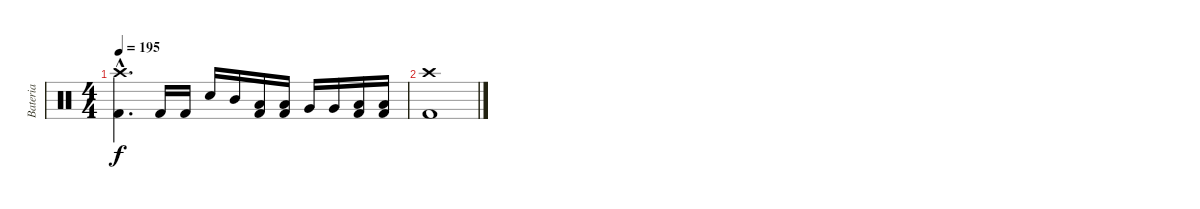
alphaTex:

\track ("Bateria" "Bateria") {instrument percussion}
\staff {score}
\articulation defaults
\ts (4 4)
\tempo 195
\clef neutral
\ks c
("Crash high (hit)"{hac} "Kick (hit) 2"{hac}).4{d dy f} "Kick (hit) 2".16 "Kick (hit) 2".16 "Snare (hit) 2".16 "Mid Tom (hit)".16 ("Low Tom (hit)" "Kick (hit) 2").16 ("Low Tom (hit)" "Kick (hit) 2").16 "Very Low Tom (hit)".16 "Very Low Tom (hit)".16 ("Low Floor Tom (hit)" "Kick (hit) 2").16 ("Low Floor Tom (hit)" "Kick (hit) 2").16 |
("Crash high (hit)" "Kick (hit) 2").1
